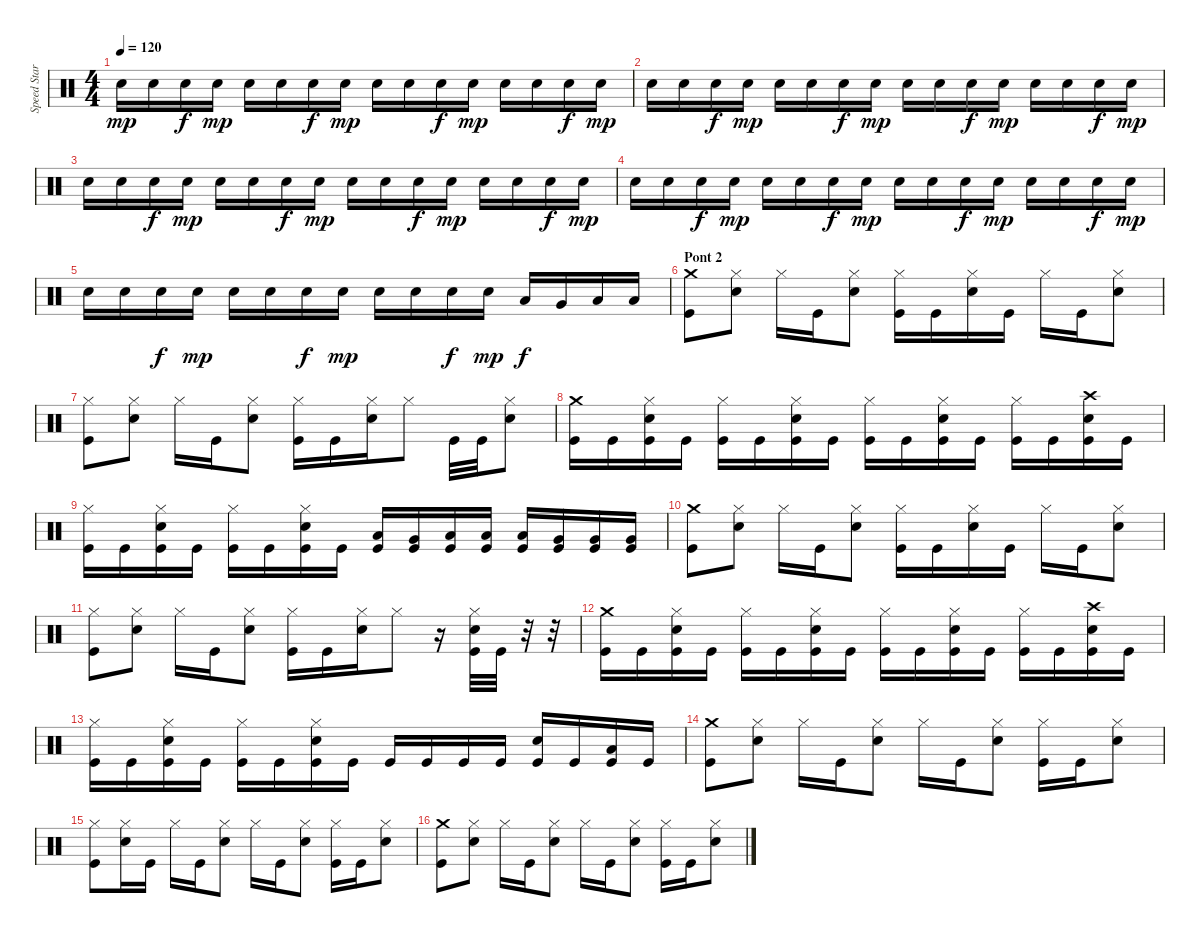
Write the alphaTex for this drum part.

\track ("Speed Star" "Speed Star") {instrument percussion}
\staff {score}
\articulation defaults
\ts (4 4)
\tempo 120
\clef neutral
\ks c "Snare (hit) 2".16{dy mp} "Snare (hit) 2".16 "Snare (hit) 2".16{dy f} "Snare (hit) 2".16{dy mp} "Snare (hit) 2".16 "Snare (hit) 2".16 "Snare (hit) 2".16{dy f} "Snare (hit) 2".16{dy mp} "Snare (hit) 2".16 "Snare (hit) 2".16 "Snare (hit) 2".16{dy f} "Snare (hit) 2".16{dy mp} "Snare (hit) 2".16 "Snare (hit) 2".16 "Snare (hit) 2".16{dy f} "Snare (hit) 2".16{dy mp}
|
"Snare (hit) 2".16 "Snare (hit) 2".16 "Snare (hit) 2".16{dy f} "Snare (hit) 2".16{dy mp} "Snare (hit) 2".16 "Snare (hit) 2".16 "Snare (hit) 2".16{dy f} "Snare (hit) 2".16{dy mp} "Snare (hit) 2".16 "Snare (hit) 2".16 "Snare (hit) 2".16{dy f} "Snare (hit) 2".16{dy mp} "Snare (hit) 2".16 "Snare (hit) 2".16 "Snare (hit) 2".16{dy f} "Snare (hit) 2".16{dy mp} |
"Snare (hit) 2".16 "Snare (hit) 2".16 "Snare (hit) 2".16{dy f} "Snare (hit) 2".16{dy mp} "Snare (hit) 2".16 "Snare (hit) 2".16 "Snare (hit) 2".16{dy f} "Snare (hit) 2".16{dy mp} "Snare (hit) 2".16 "Snare (hit) 2".16 "Snare (hit) 2".16{dy f} "Snare (hit) 2".16{dy mp} "Snare (hit) 2".16 "Snare (hit) 2".16 "Snare (hit) 2".16{dy f} "Snare (hit) 2".16{dy mp} |
"Snare (hit) 2".16 "Snare (hit) 2".16 "Snare (hit) 2".16{dy f} "Snare (hit) 2".16{dy mp} "Snare (hit) 2".16 "Snare (hit) 2".16 "Snare (hit) 2".16{dy f} "Snare (hit) 2".16{dy mp} "Snare (hit) 2".16 "Snare (hit) 2".16 "Snare (hit) 2".16{dy f} "Snare (hit) 2".16{dy mp} "Snare (hit) 2".16 "Snare (hit) 2".16 "Snare (hit) 2".16{dy f} "Snare (hit) 2".16{dy mp} |
"Snare (hit) 2".16 "Snare (hit) 2".16 "Snare (hit) 2".16{dy f} "Snare (hit) 2".16{dy mp} "Snare (hit) 2".16 "Snare (hit) 2".16 "Snare (hit) 2".16{dy f} "Snare (hit) 2".16{dy mp} "Snare (hit) 2".16 "Snare (hit) 2".16 "Snare (hit) 2".16{dy f} "Snare (hit) 2".16{dy mp} "Low Floor Tom (hit)".16{dy f} "Very Low Tom (hit)".16 "Low Tom (hit)".16 "Low Tom (hit)".16 |
\section ("" "Pont 2")
("Kick (hit)" "Crash medium (hit)").8 ("Snare (hit) 2" "Hi-Hat (closed)").8 "Hi-Hat (closed)".16 "Kick (hit)".16 ("Snare (hit) 2" "Hi-Hat (closed)").8 ("Kick (hit)" "Hi-Hat (closed)").16 "Kick (hit)".16 ("Snare (hit) 2" "Hi-Hat (closed)").16 "Kick (hit)".16 "Hi-Hat (closed)".16 "Kick (hit)".16 ("Snare (hit) 2" "Hi-Hat (closed)").8 |
("Kick (hit)" "Hi-Hat (closed)").8 ("Snare (hit) 2" "Hi-Hat (closed)").8 "Hi-Hat (closed)".16 "Kick (hit)".16 ("Snare (hit) 2" "Hi-Hat (closed)").8 ("Kick (hit)" "Hi-Hat (closed)").16 "Kick (hit)".16 ("Snare (hit) 2" "Hi-Hat (closed)").16 "Hi-Hat (closed)".8 "Kick (hit)".32 "Kick (hit)".32 ("Snare (hit) 2" "Hi-Hat (closed)").8 |
("Kick (hit)" "Crash medium (hit)").16 "Kick (hit)".16 ("Kick (hit)" "Snare (hit) 2" "Hi-Hat (closed)").16 "Kick (hit)".16 ("Kick (hit)" "Hi-Hat (closed)").16 "Kick (hit)".16 ("Kick (hit)" "Snare (hit) 2" "Hi-Hat (closed)").16 "Kick (hit)".16 ("Kick (hit)" "Hi-Hat (closed)").16 "Kick (hit)".16 ("Kick (hit)" "Snare (hit) 2" "Hi-Hat (closed)").16 "Kick (hit)".16 ("Kick (hit)" "Hi-Hat (closed)").16 "Kick (hit)".16 ("Kick (hit)" "Snare (hit) 2" "Crash high (hit)").16 "Kick (hit)".16 |
("Kick (hit)" "Hi-Hat (closed)").16 "Kick (hit)".16 ("Kick (hit)" "Snare (hit) 2" "Hi-Hat (closed)").16 "Kick (hit)".16 ("Kick (hit)" "Hi-Hat (closed)").16 "Kick (hit)".16 ("Kick (hit)" "Snare (hit) 2" "Hi-Hat (closed)").16 "Kick (hit)".16 ("Kick (hit)" "Low Floor Tom (hit)").16 ("Kick (hit)" "Very Low Tom (hit)").16 ("Kick (hit)" "Low Tom (hit)").16 ("Kick (hit)" "Low Tom (hit)").16 ("Kick (hit)" "Low Tom (hit)").16 ("Kick (hit)" "Very Low Tom (hit)").16 ("Kick (hit)" "Very Low Tom (hit)").16 ("Kick (hit)" "Very Low Tom (hit)").16 |
("Kick (hit)" "Crash medium (hit)").8 ("Snare (hit) 2" "Hi-Hat (closed)").8 "Hi-Hat (closed)".16 "Kick (hit)".16 ("Snare (hit) 2" "Hi-Hat (closed)").8 ("Kick (hit)" "Hi-Hat (closed)").16 "Kick (hit)".16 ("Snare (hit) 2" "Hi-Hat (closed)").16 "Kick (hit)".16 "Hi-Hat (closed)".16 "Kick (hit)".16 ("Snare (hit) 2" "Hi-Hat (closed)").8 |
("Kick (hit)" "Hi-Hat (closed)").8 ("Snare (hit) 2" "Hi-Hat (closed)").8 "Hi-Hat (closed)".16 "Kick (hit)".16 ("Snare (hit) 2" "Hi-Hat (closed)").8 ("Kick (hit)" "Hi-Hat (closed)").16 "Kick (hit)".16 ("Snare (hit) 2" "Hi-Hat (closed)").16 "Hi-Hat (closed)".8 r.16 ("Kick (hit)" "Snare (hit) 2" "Hi-Hat (closed)").32 "Kick (hit)".32 r.32 r.32 |
("Kick (hit)" "Crash medium (hit)").16 "Kick (hit)".16 ("Kick (hit)" "Snare (hit) 2" "Hi-Hat (closed)").16 "Kick (hit)".16 ("Kick (hit)" "Hi-Hat (closed)").16 "Kick (hit)".16 ("Kick (hit)" "Snare (hit) 2" "Hi-Hat (closed)").16 "Kick (hit)".16 ("Kick (hit)" "Hi-Hat (closed)").16 "Kick (hit)".16 ("Kick (hit)" "Snare (hit) 2" "Hi-Hat (closed)").16 "Kick (hit)".16 ("Kick (hit)" "Hi-Hat (closed)").16 "Kick (hit)".16 ("Kick (hit)" "Snare (hit) 2" "Crash high (hit)").16 "Kick (hit)".16 |
("Kick (hit)" "Hi-Hat (closed)").16 "Kick (hit)".16 ("Kick (hit)" "Snare (hit) 2" "Hi-Hat (closed)").16 "Kick (hit)".16 ("Kick (hit)" "Hi-Hat (closed)").16 "Kick (hit)".16 ("Kick (hit)" "Snare (hit) 2" "Hi-Hat (closed)").16 "Kick (hit)".16 "Kick (hit)".16 "Kick (hit)".16 "Kick (hit)".16 "Kick (hit)".16 ("Kick (hit)" "Snare (hit) 2").16 "Kick (hit)".16 ("Kick (hit)" "Low Floor Tom (hit)").16 "Kick (hit)".16 |
("Kick (hit)" "Crash medium (hit)").8 ("Snare (hit) 2" "Hi-Hat (closed)").8 "Hi-Hat (closed)".16 "Kick (hit)".16 ("Snare (hit) 2" "Hi-Hat (closed)").8 "Hi-Hat (closed)".16 "Kick (hit)".16 ("Snare (hit) 2" "Hi-Hat (closed)").8 ("Kick (hit)" "Hi-Hat (closed)").16 "Kick (hit)".16 ("Snare (hit) 2" "Hi-Hat (closed)").8 |
("Kick (hit)" "Hi-Hat (closed)").8 ("Snare (hit) 2" "Hi-Hat (closed)").16 "Kick (hit)".16 "Hi-Hat (closed)".16 "Kick (hit)".16 ("Snare (hit) 2" "Hi-Hat (closed)").8 "Hi-Hat (closed)".16 "Kick (hit)".16 ("Snare (hit) 2" "Hi-Hat (closed)").8 ("Kick (hit)" "Hi-Hat (closed)").16 "Kick (hit)".16 ("Snare (hit) 2" "Hi-Hat (closed)").8 |
("Kick (hit)" "Crash medium (hit)").8 ("Snare (hit) 2" "Hi-Hat (closed)").8 "Hi-Hat (closed)".16 "Kick (hit)".16 ("Snare (hit) 2" "Hi-Hat (closed)").8 "Hi-Hat (closed)".16 "Kick (hit)".16 ("Snare (hit) 2" "Hi-Hat (closed)").8 ("Kick (hit)" "Hi-Hat (closed)").16 "Kick (hit)".16 ("Snare (hit) 2" "Hi-Hat (closed)").8
